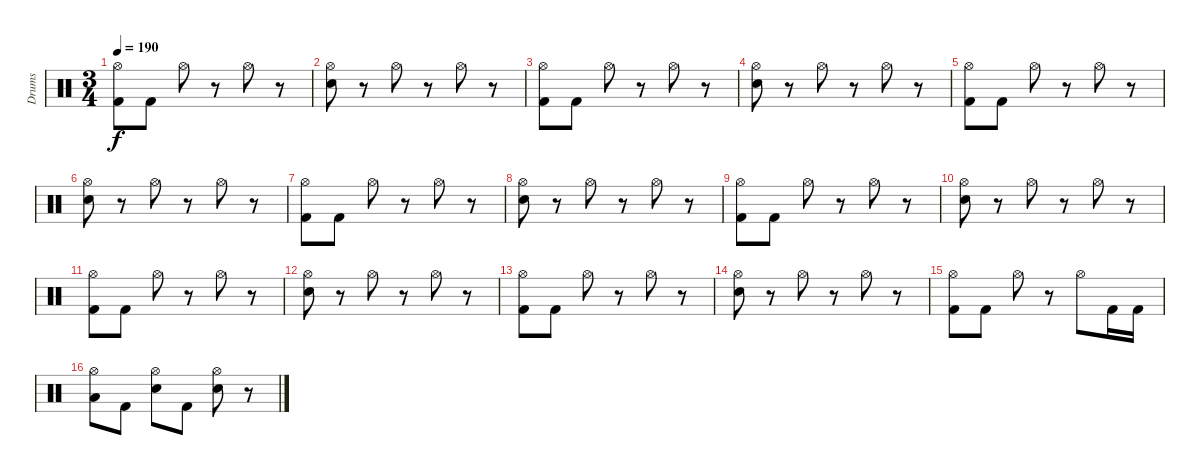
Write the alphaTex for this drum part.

\track ("Drums" "Drums") {instrument percussion}
\staff {score}
\articulation defaults
\ts (3 4)
\tempo 190
\clef neutral
\ks c
("Hi-Hat (open)" "Kick (hit) 2").8{dy f} "Kick (hit) 2".8 "Hi-Hat (open)".8 r.8 "Hi-Hat (open)".8 r.8 |
("Hi-Hat (open)" "Snare (hit) 2").8 r.8 "Hi-Hat (open)".8 r.8 "Hi-Hat (open)".8 r.8 |
("Hi-Hat (open)" "Kick (hit) 2").8 "Kick (hit) 2".8 "Hi-Hat (open)".8 r.8 "Hi-Hat (open)".8 r.8 |
("Hi-Hat (open)" "Snare (hit) 2").8 r.8 "Hi-Hat (open)".8 r.8 "Hi-Hat (open)".8 r.8 |
("Hi-Hat (open)" "Kick (hit) 2").8 "Kick (hit) 2".8 "Hi-Hat (open)".8 r.8 "Hi-Hat (open)".8 r.8 |
("Hi-Hat (open)" "Snare (hit) 2").8 r.8 "Hi-Hat (open)".8 r.8 "Hi-Hat (open)".8 r.8 |
("Hi-Hat (open)" "Kick (hit) 2").8 "Kick (hit) 2".8 "Hi-Hat (open)".8 r.8 "Hi-Hat (open)".8 r.8 |
("Hi-Hat (open)" "Snare (hit) 2").8 r.8 "Hi-Hat (open)".8 r.8 "Hi-Hat (open)".8 r.8 |
("Hi-Hat (open)" "Kick (hit) 2").8 "Kick (hit) 2".8 "Hi-Hat (open)".8 r.8 "Hi-Hat (open)".8 r.8 |
("Hi-Hat (open)" "Snare (hit) 2").8 r.8 "Hi-Hat (open)".8 r.8 "Hi-Hat (open)".8 r.8 |
("Hi-Hat (open)" "Kick (hit) 2").8 "Kick (hit) 2".8 "Hi-Hat (open)".8 r.8 "Hi-Hat (open)".8 r.8 |
("Hi-Hat (open)" "Snare (hit) 2").8 r.8 "Hi-Hat (open)".8 r.8 "Hi-Hat (open)".8 r.8 |
("Hi-Hat (open)" "Kick (hit) 2").8 "Kick (hit) 2".8 "Hi-Hat (open)".8 r.8 "Hi-Hat (open)".8 r.8 |
("Hi-Hat (open)" "Snare (hit) 2").8 r.8 "Hi-Hat (open)".8 r.8 "Hi-Hat (open)".8 r.8 |
("Hi-Hat (open)" "Kick (hit) 2").8 "Kick (hit) 2".8 "Hi-Hat (open)".8 r.8 "Hi-Hat (open)".8 "Kick (hit) 2".16 "Kick (hit) 2".16 |
("Hi-Hat (open)" "Low Floor Tom (hit)").8 "Kick (hit) 2".8 ("Hi-Hat (open)" "Snare (hit) 2").8 "Kick (hit) 2".8 ("Hi-Hat (open)" "Snare (hit) 2").8 r.8
